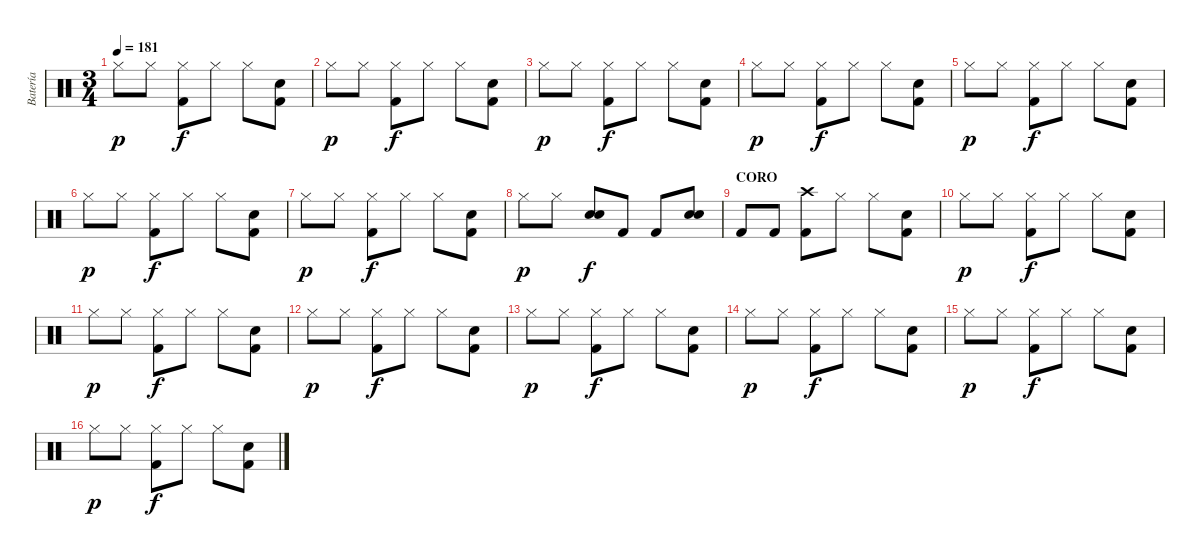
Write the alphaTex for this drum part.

\track ("Batería" "Batería") {instrument percussion}
\staff {score}
\articulation defaults
\ts (3 4)
\tempo 181
\clef neutral
\ks c "Hi-Hat (closed)".8{dy p} "Hi-Hat (closed)".8
("Hi-Hat (closed)" "Kick (hit) 2").8{dy f} "Hi-Hat (closed)".8 "Hi-Hat (closed)".8 ("Electric Snare (hit)" "Kick (hit) 2").8 |
"Hi-Hat (closed)".8{dy p} "Hi-Hat (closed)".8 ("Hi-Hat (closed)" "Kick (hit) 2").8{dy f} "Hi-Hat (closed)".8 "Hi-Hat (closed)".8 ("Electric Snare (hit)" "Kick (hit) 2").8 |
"Hi-Hat (closed)".8{dy p} "Hi-Hat (closed)".8 ("Hi-Hat (closed)" "Kick (hit) 2").8{dy f} "Hi-Hat (closed)".8 "Hi-Hat (closed)".8 ("Electric Snare (hit)" "Kick (hit) 2").8 |
"Hi-Hat (closed)".8{dy p} "Hi-Hat (closed)".8 ("Hi-Hat (closed)" "Kick (hit) 2").8{dy f} "Hi-Hat (closed)".8 "Hi-Hat (closed)".8 ("Electric Snare (hit)" "Kick (hit) 2").8 |
"Hi-Hat (closed)".8{dy p} "Hi-Hat (closed)".8 ("Hi-Hat (closed)" "Kick (hit) 2").8{dy f} "Hi-Hat (closed)".8 "Hi-Hat (closed)".8 ("Electric Snare (hit)" "Kick (hit) 2").8 |
"Hi-Hat (closed)".8{dy p} "Hi-Hat (closed)".8 ("Hi-Hat (closed)" "Kick (hit) 2").8{dy f} "Hi-Hat (closed)".8 "Hi-Hat (closed)".8 ("Electric Snare (hit)" "Kick (hit) 2").8 |
"Hi-Hat (closed)".8{dy p} "Hi-Hat (closed)".8 ("Hi-Hat (closed)" "Kick (hit) 2").8{dy f} "Hi-Hat (closed)".8 "Hi-Hat (closed)".8 ("Electric Snare (hit)" "Kick (hit) 2").8 |
"Hi-Hat (closed)".8{dy p} "Hi-Hat (closed)".8 ("Electric Snare (hit)" "Electric Snare (hit)").8{bd 480 dy f} "Kick (hit) 2".8 "Kick (hit) 2".8 ("Electric Snare (hit)" "Electric Snare (hit)").8{bd 480} |
\section ("" "CORO")
"Kick (hit) 2".8 "Kick (hit) 2".8 ("Crash high (hit)" "Kick (hit) 2").8 "Hi-Hat (closed)".8 "Hi-Hat (closed)".8 ("Electric Snare (hit)" "Kick (hit) 2").8 |
"Hi-Hat (closed)".8{dy p} "Hi-Hat (closed)".8 ("Hi-Hat (closed)" "Kick (hit) 2").8{dy f} "Hi-Hat (closed)".8 "Hi-Hat (closed)".8 ("Electric Snare (hit)" "Kick (hit) 2").8 |
"Hi-Hat (closed)".8{dy p} "Hi-Hat (closed)".8 ("Hi-Hat (closed)" "Kick (hit) 2").8{dy f} "Hi-Hat (closed)".8 "Hi-Hat (closed)".8 ("Electric Snare (hit)" "Kick (hit) 2").8 |
"Hi-Hat (closed)".8{dy p} "Hi-Hat (closed)".8 ("Hi-Hat (closed)" "Kick (hit) 2").8{dy f} "Hi-Hat (closed)".8 "Hi-Hat (closed)".8 ("Electric Snare (hit)" "Kick (hit) 2").8 |
"Hi-Hat (closed)".8{dy p} "Hi-Hat (closed)".8 ("Hi-Hat (closed)" "Kick (hit) 2").8{dy f} "Hi-Hat (closed)".8 "Hi-Hat (closed)".8 ("Electric Snare (hit)" "Kick (hit) 2").8 |
"Hi-Hat (closed)".8{dy p} "Hi-Hat (closed)".8 ("Hi-Hat (closed)" "Kick (hit) 2").8{dy f} "Hi-Hat (closed)".8 "Hi-Hat (closed)".8 ("Electric Snare (hit)" "Kick (hit) 2").8 |
"Hi-Hat (closed)".8{dy p} "Hi-Hat (closed)".8 ("Hi-Hat (closed)" "Kick (hit) 2").8{dy f} "Hi-Hat (closed)".8 "Hi-Hat (closed)".8 ("Electric Snare (hit)" "Kick (hit) 2").8 |
"Hi-Hat (closed)".8{dy p} "Hi-Hat (closed)".8 ("Hi-Hat (closed)" "Kick (hit) 2").8{dy f} "Hi-Hat (closed)".8 "Hi-Hat (closed)".8 ("Electric Snare (hit)" "Kick (hit) 2").8
